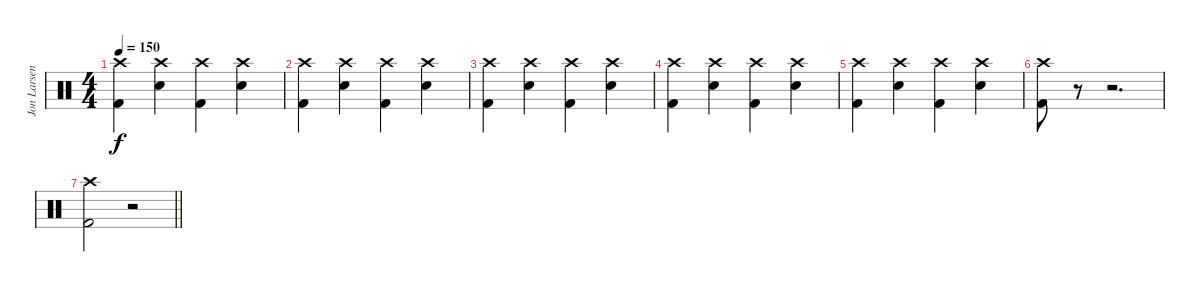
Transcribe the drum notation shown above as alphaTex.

\track ("Jon Larsen" "Jon Larsen") {instrument percussion}
\staff {score}
\articulation defaults
\ts (4 4)
\tempo 150
\clef neutral
\ks c
("Kick (hit) 2" "Crash high (hit)").4{dy f} ("Snare (hit) 2" "Crash high (hit)").4 ("Kick (hit) 2" "Crash high (hit)").4 ("Snare (hit) 2" "Crash high (hit)").4 |
("Kick (hit) 2" "Crash high (hit)").4 ("Snare (hit) 2" "Crash high (hit)").4 ("Kick (hit) 2" "Crash high (hit)").4 ("Snare (hit) 2" "Crash high (hit)").4 |
("Kick (hit) 2" "Crash high (hit)").4 ("Snare (hit) 2" "Crash high (hit)").4 ("Kick (hit) 2" "Crash high (hit)").4 ("Snare (hit) 2" "Crash high (hit)").4 |
("Kick (hit) 2" "Crash high (hit)").4 ("Snare (hit) 2" "Crash high (hit)").4 ("Kick (hit) 2" "Crash high (hit)").4 ("Snare (hit) 2" "Crash high (hit)").4 |
("Kick (hit) 2" "Crash high (hit)").4 ("Snare (hit) 2" "Crash high (hit)").4 ("Kick (hit) 2" "Crash high (hit)").4 ("Snare (hit) 2" "Crash high (hit)").4 |
("Kick (hit) 2" "Crash high (hit)").8 r.8 r.2{d} |
\barLineRight lightlight
("Kick (hit) 2" "Crash high (hit)").2 r.2
